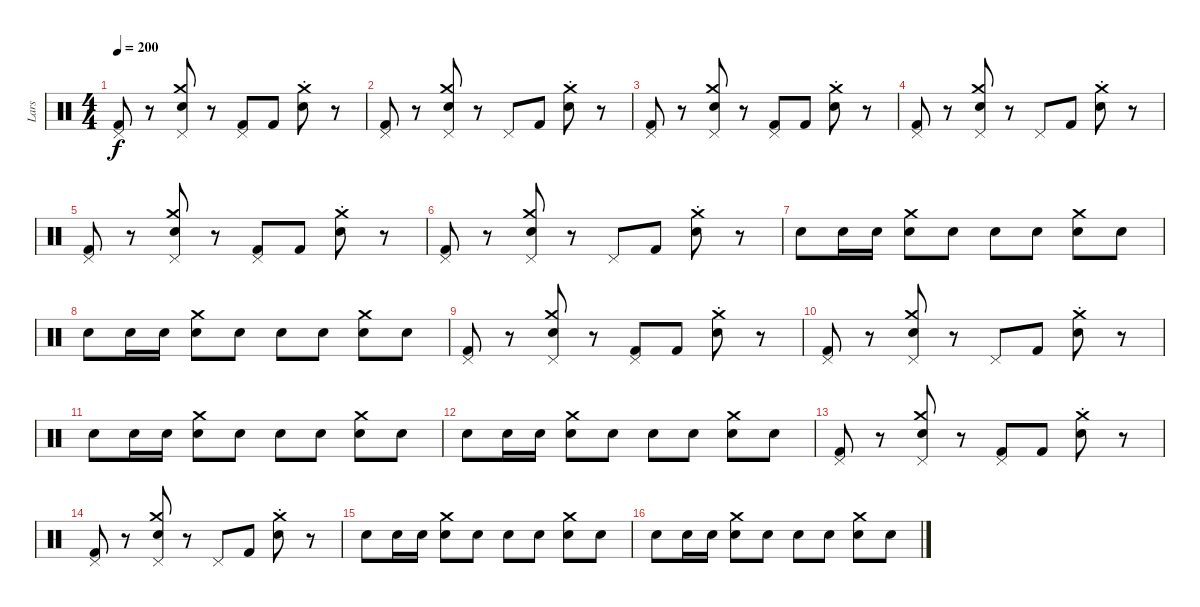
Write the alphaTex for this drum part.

\track ("Lars" "Lars") {instrument percussion}
\staff {score}
\articulation defaults
\ts (4 4)
\tempo 200
\clef neutral
\ks c
("Pedal Hi-Hat (hit)" "Kick (hit) 2").8{dy f} r.8 ("Crash medium (hit)" "Pedal Hi-Hat (hit)" "Snare (hit) 2").8 r.8 ("Pedal Hi-Hat (hit)" "Kick (hit) 2").8 "Kick (hit) 2".8 ("Crash medium (hit)"{st} "Snare (hit) 2").8 r.8 |
("Pedal Hi-Hat (hit)" "Kick (hit) 2").8 r.8 ("Crash medium (hit)" "Pedal Hi-Hat (hit)" "Snare (hit) 2").8 r.8 "Pedal Hi-Hat (hit)".8 "Kick (hit) 2".8 ("Crash medium (hit)"{st} "Snare (hit) 2").8 r.8 |
("Pedal Hi-Hat (hit)" "Kick (hit) 2").8 r.8 ("Crash medium (hit)" "Pedal Hi-Hat (hit)" "Snare (hit) 2").8 r.8 ("Pedal Hi-Hat (hit)" "Kick (hit) 2").8 "Kick (hit) 2".8 ("Crash medium (hit)"{st} "Snare (hit) 2").8 r.8 |
("Pedal Hi-Hat (hit)" "Kick (hit) 2").8 r.8 ("Crash medium (hit)" "Pedal Hi-Hat (hit)" "Snare (hit) 2").8 r.8 "Pedal Hi-Hat (hit)".8 "Kick (hit) 2".8 ("Crash medium (hit)"{st} "Snare (hit) 2").8 r.8 |
("Pedal Hi-Hat (hit)" "Kick (hit) 2").8 r.8 ("Crash medium (hit)" "Pedal Hi-Hat (hit)" "Snare (hit) 2").8 r.8 ("Pedal Hi-Hat (hit)" "Kick (hit) 2").8 "Kick (hit) 2".8 ("Crash medium (hit)"{st} "Snare (hit) 2").8 r.8 |
("Pedal Hi-Hat (hit)" "Kick (hit) 2").8 r.8 ("Crash medium (hit)" "Pedal Hi-Hat (hit)" "Snare (hit) 2").8 r.8 "Pedal Hi-Hat (hit)".8 "Kick (hit) 2".8 ("Crash medium (hit)"{st} "Snare (hit) 2").8 r.8 |
"Snare (hit) 2".8 "Snare (hit) 2".16 "Snare (hit) 2".16 ("Crash medium (hit)" "Snare (hit) 2").8 "Snare (hit) 2".8 "Snare (hit) 2".8 "Snare (hit) 2".8 ("Crash medium (hit)" "Snare (hit) 2").8 "Snare (hit) 2".8 |
"Snare (hit) 2".8 "Snare (hit) 2".16 "Snare (hit) 2".16 ("Crash medium (hit)" "Snare (hit) 2").8 "Snare (hit) 2".8 "Snare (hit) 2".8 "Snare (hit) 2".8 ("Crash medium (hit)" "Snare (hit) 2").8 "Snare (hit) 2".8 |
("Pedal Hi-Hat (hit)" "Kick (hit) 2").8 r.8 ("Crash medium (hit)" "Pedal Hi-Hat (hit)" "Snare (hit) 2").8 r.8 ("Pedal Hi-Hat (hit)" "Kick (hit) 2").8 "Kick (hit) 2".8 ("Crash medium (hit)"{st} "Snare (hit) 2").8 r.8 |
("Pedal Hi-Hat (hit)" "Kick (hit) 2").8 r.8 ("Crash medium (hit)" "Pedal Hi-Hat (hit)" "Snare (hit) 2").8 r.8 "Pedal Hi-Hat (hit)".8 "Kick (hit) 2".8 ("Crash medium (hit)"{st} "Snare (hit) 2").8 r.8 |
"Snare (hit) 2".8 "Snare (hit) 2".16 "Snare (hit) 2".16 ("Crash medium (hit)" "Snare (hit) 2").8 "Snare (hit) 2".8 "Snare (hit) 2".8 "Snare (hit) 2".8 ("Crash medium (hit)" "Snare (hit) 2").8 "Snare (hit) 2".8 |
"Snare (hit) 2".8 "Snare (hit) 2".16 "Snare (hit) 2".16 ("Crash medium (hit)" "Snare (hit) 2").8 "Snare (hit) 2".8 "Snare (hit) 2".8 "Snare (hit) 2".8 ("Crash medium (hit)" "Snare (hit) 2").8 "Snare (hit) 2".8 |
("Pedal Hi-Hat (hit)" "Kick (hit) 2").8 r.8 ("Crash medium (hit)" "Pedal Hi-Hat (hit)" "Snare (hit) 2").8 r.8 ("Pedal Hi-Hat (hit)" "Kick (hit) 2").8 "Kick (hit) 2".8 ("Crash medium (hit)"{st} "Snare (hit) 2").8 r.8 |
("Pedal Hi-Hat (hit)" "Kick (hit) 2").8 r.8 ("Crash medium (hit)" "Pedal Hi-Hat (hit)" "Snare (hit) 2").8 r.8 "Pedal Hi-Hat (hit)".8 "Kick (hit) 2".8 ("Crash medium (hit)"{st} "Snare (hit) 2").8 r.8 |
"Snare (hit) 2".8 "Snare (hit) 2".16 "Snare (hit) 2".16 ("Crash medium (hit)" "Snare (hit) 2").8 "Snare (hit) 2".8 "Snare (hit) 2".8 "Snare (hit) 2".8 ("Crash medium (hit)" "Snare (hit) 2").8 "Snare (hit) 2".8 |
"Snare (hit) 2".8 "Snare (hit) 2".16 "Snare (hit) 2".16 ("Crash medium (hit)" "Snare (hit) 2").8 "Snare (hit) 2".8 "Snare (hit) 2".8 "Snare (hit) 2".8 ("Crash medium (hit)" "Snare (hit) 2").8 "Snare (hit) 2".8
